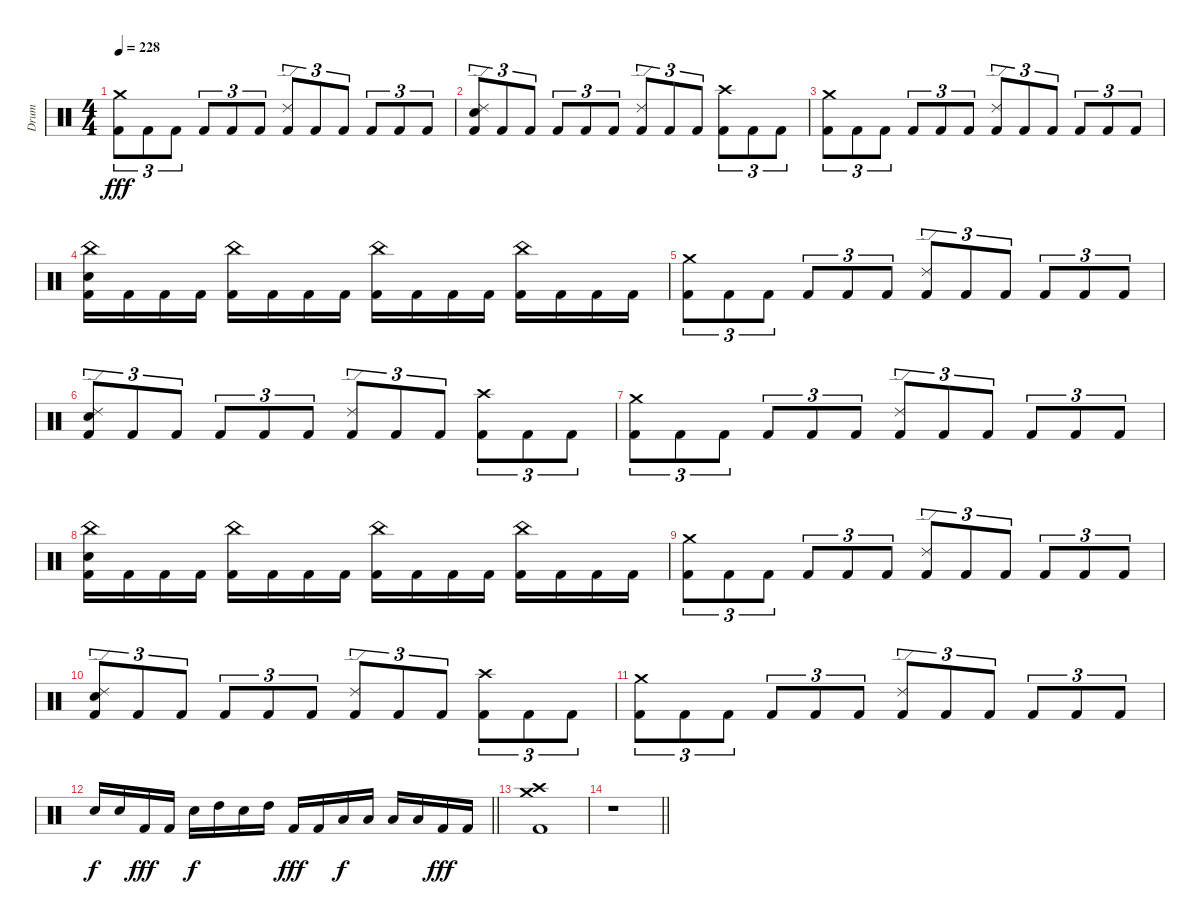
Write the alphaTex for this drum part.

\track ("Drum" "Drum") {instrument percussion}
\staff {score}
\articulation defaults
\ts (4 4)
\tempo 228
\clef neutral
\ks c
("Crash medium (hit)" "Kick (hit) 2").8{tu (3 2) dy fff} "Kick (hit) 2".8{tu (3 2)} "Kick (hit) 2".8{tu (3 2)} "Kick (hit) 2".8{tu (3 2)} "Kick (hit) 2".8{tu (3 2)} "Kick (hit) 2".8{tu (3 2)} ("Ride (edge) 2" "Kick (hit) 2").8{tu (3 2)} "Kick (hit) 2".8{tu (3 2)} "Kick (hit) 2".8{tu (3 2)} "Kick (hit) 2".8{tu (3 2)} "Kick (hit) 2".8{tu (3 2)} "Kick (hit) 2".8{tu (3 2)} |
("Ride (edge) 2" "Snare (hit) 2" "Kick (hit) 2").8{tu (3 2)} "Kick (hit) 2".8{tu (3 2)} "Kick (hit) 2".8{tu (3 2)} "Kick (hit) 2".8{tu (3 2)} "Kick (hit) 2".8{tu (3 2)} "Kick (hit) 2".8{tu (3 2)} ("Ride (edge) 2" "Kick (hit) 2").8{tu (3 2)} "Kick (hit) 2".8{tu (3 2)} "Kick (hit) 2".8{tu (3 2)} ("Crash high (hit)" "Kick (hit) 2").8{tu (3 2)} "Kick (hit) 2".8{tu (3 2)} "Kick (hit) 2".8{tu (3 2)} |
("Crash medium (hit)" "Kick (hit) 2").8{tu (3 2)} "Kick (hit) 2".8{tu (3 2)} "Kick (hit) 2".8{tu (3 2)} "Kick (hit) 2".8{tu (3 2)} "Kick (hit) 2".8{tu (3 2)} "Kick (hit) 2".8{tu (3 2)} ("Ride (edge) 2" "Kick (hit) 2").8{tu (3 2)} "Kick (hit) 2".8{tu (3 2)} "Kick (hit) 2".8{tu (3 2)} "Kick (hit) 2".8{tu (3 2)} "Kick (hit) 2".8{tu (3 2)} "Kick (hit) 2".8{tu (3 2)} |
("China (hit)" "Snare (hit) 2" "Kick (hit) 2").16 "Kick (hit) 2".16 "Kick (hit) 2".16 "Kick (hit) 2".16 ("China (hit)" "Kick (hit) 2").16 "Kick (hit) 2".16 "Kick (hit) 2".16 "Kick (hit) 2".16 ("China (hit)" "Kick (hit) 2").16 "Kick (hit) 2".16 "Kick (hit) 2".16 "Kick (hit) 2".16 ("China (hit)" "Kick (hit) 2").16 "Kick (hit) 2".16 "Kick (hit) 2".16 "Kick (hit) 2".16 |
("Crash medium (hit)" "Kick (hit) 2").8{tu (3 2)} "Kick (hit) 2".8{tu (3 2)} "Kick (hit) 2".8{tu (3 2)} "Kick (hit) 2".8{tu (3 2)} "Kick (hit) 2".8{tu (3 2)} "Kick (hit) 2".8{tu (3 2)} ("Ride (edge) 2" "Kick (hit) 2").8{tu (3 2)} "Kick (hit) 2".8{tu (3 2)} "Kick (hit) 2".8{tu (3 2)} "Kick (hit) 2".8{tu (3 2)} "Kick (hit) 2".8{tu (3 2)} "Kick (hit) 2".8{tu (3 2)} |
("Ride (edge) 2" "Snare (hit) 2" "Kick (hit) 2").8{tu (3 2)} "Kick (hit) 2".8{tu (3 2)} "Kick (hit) 2".8{tu (3 2)} "Kick (hit) 2".8{tu (3 2)} "Kick (hit) 2".8{tu (3 2)} "Kick (hit) 2".8{tu (3 2)} ("Ride (edge) 2" "Kick (hit) 2").8{tu (3 2)} "Kick (hit) 2".8{tu (3 2)} "Kick (hit) 2".8{tu (3 2)} ("Crash high (hit)" "Kick (hit) 2").8{tu (3 2)} "Kick (hit) 2".8{tu (3 2)} "Kick (hit) 2".8{tu (3 2)} |
("Crash medium (hit)" "Kick (hit) 2").8{tu (3 2)} "Kick (hit) 2".8{tu (3 2)} "Kick (hit) 2".8{tu (3 2)} "Kick (hit) 2".8{tu (3 2)} "Kick (hit) 2".8{tu (3 2)} "Kick (hit) 2".8{tu (3 2)} ("Ride (edge) 2" "Kick (hit) 2").8{tu (3 2)} "Kick (hit) 2".8{tu (3 2)} "Kick (hit) 2".8{tu (3 2)} "Kick (hit) 2".8{tu (3 2)} "Kick (hit) 2".8{tu (3 2)} "Kick (hit) 2".8{tu (3 2)} |
("China (hit)" "Snare (hit) 2" "Kick (hit) 2").16 "Kick (hit) 2".16 "Kick (hit) 2".16 "Kick (hit) 2".16 ("China (hit)" "Kick (hit) 2").16 "Kick (hit) 2".16 "Kick (hit) 2".16 "Kick (hit) 2".16 ("China (hit)" "Kick (hit) 2").16 "Kick (hit) 2".16 "Kick (hit) 2".16 "Kick (hit) 2".16 ("China (hit)" "Kick (hit) 2").16 "Kick (hit) 2".16 "Kick (hit) 2".16 "Kick (hit) 2".16 |
("Crash medium (hit)" "Kick (hit) 2").8{tu (3 2)} "Kick (hit) 2".8{tu (3 2)} "Kick (hit) 2".8{tu (3 2)} "Kick (hit) 2".8{tu (3 2)} "Kick (hit) 2".8{tu (3 2)} "Kick (hit) 2".8{tu (3 2)} ("Ride (edge) 2" "Kick (hit) 2").8{tu (3 2)} "Kick (hit) 2".8{tu (3 2)} "Kick (hit) 2".8{tu (3 2)} "Kick (hit) 2".8{tu (3 2)} "Kick (hit) 2".8{tu (3 2)} "Kick (hit) 2".8{tu (3 2)} |
("Ride (edge) 2" "Snare (hit) 2" "Kick (hit) 2").8{tu (3 2)} "Kick (hit) 2".8{tu (3 2)} "Kick (hit) 2".8{tu (3 2)} "Kick (hit) 2".8{tu (3 2)} "Kick (hit) 2".8{tu (3 2)} "Kick (hit) 2".8{tu (3 2)} ("Ride (edge) 2" "Kick (hit) 2").8{tu (3 2)} "Kick (hit) 2".8{tu (3 2)} "Kick (hit) 2".8{tu (3 2)} ("Crash high (hit)" "Kick (hit) 2").8{tu (3 2)} "Kick (hit) 2".8{tu (3 2)} "Kick (hit) 2".8{tu (3 2)} |
("Crash medium (hit)" "Kick (hit) 2").8{tu (3 2)} "Kick (hit) 2".8{tu (3 2)} "Kick (hit) 2".8{tu (3 2)} "Kick (hit) 2".8{tu (3 2)} "Kick (hit) 2".8{tu (3 2)} "Kick (hit) 2".8{tu (3 2)} ("Ride (edge) 2" "Kick (hit) 2").8{tu (3 2)} "Kick (hit) 2".8{tu (3 2)} "Kick (hit) 2".8{tu (3 2)} "Kick (hit) 2".8{tu (3 2)} "Kick (hit) 2".8{tu (3 2)} "Kick (hit) 2".8{tu (3 2)} |
\barLineRight lightlight "Snare (hit) 2".16{dy f} "Snare (hit) 2".16 "Kick (hit) 2".16{dy fff} "Kick (hit) 2".16 "Snare (hit) 2".16{dy f} "High Tom (hit)".16 "Snare (hit) 2".16 "High Tom (hit)".16 "Kick (hit) 2".16{dy fff} "Kick (hit) 2".16 "Low Tom (hit)".16{dy f} "Low Tom (hit)".16 "Low Tom (hit)".16 "Low Tom (hit)".16 "Kick (hit) 2".16{dy fff} "Kick (hit) 2".16
|
("Crash medium (hit)" "Crash high (hit)" "Kick (hit) 2").1 |
\barLineRight lightlight
r.1
